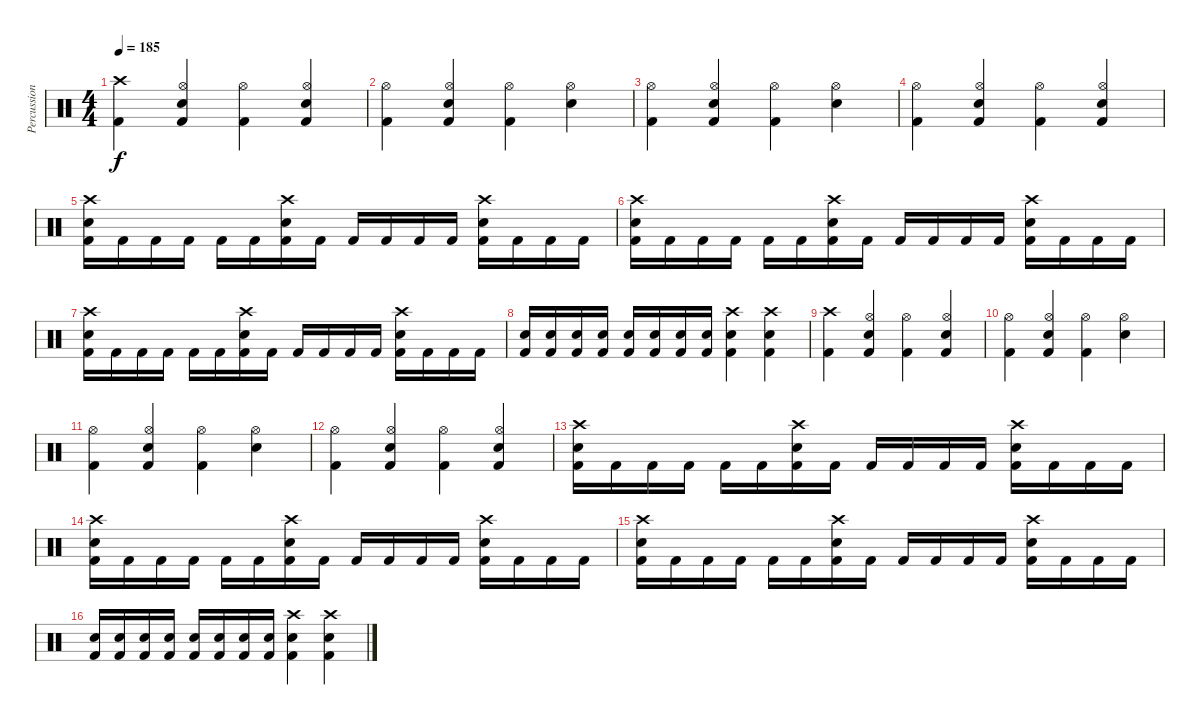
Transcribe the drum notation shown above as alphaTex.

\track ("Percussion" "Percussion") {instrument percussion}
\staff {score}
\articulation defaults
\ts (4 4)
\tempo 185
\clef neutral
\ks c
("Crash high (hit)" "Kick (hit) 2").4{dy f} ("Hi-Hat (open)" "Snare (hit) 2" "Kick (hit) 2").4 ("Hi-Hat (open)" "Kick (hit) 2").4 ("Hi-Hat (open)" "Snare (hit) 2" "Kick (hit) 2").4 |
("Hi-Hat (open)" "Kick (hit) 2").4 ("Hi-Hat (open)" "Snare (hit) 2" "Kick (hit) 2").4 ("Hi-Hat (open)" "Kick (hit) 2").4 ("Hi-Hat (open)" "Snare (hit) 2").4 |
("Hi-Hat (open)" "Kick (hit) 2").4 ("Hi-Hat (open)" "Snare (hit) 2" "Kick (hit) 2").4 ("Hi-Hat (open)" "Kick (hit) 2").4 ("Hi-Hat (open)" "Snare (hit) 2").4 |
("Hi-Hat (open)" "Kick (hit) 2").4 ("Hi-Hat (open)" "Snare (hit) 2" "Kick (hit) 2").4 ("Hi-Hat (open)" "Kick (hit) 2").4 ("Hi-Hat (open)" "Snare (hit) 2" "Kick (hit) 2").4 |
("Crash high (hit)" "Snare (hit) 2" "Kick (hit) 2").16 "Kick (hit) 2".16 "Kick (hit) 2".16 "Kick (hit) 2".16 "Kick (hit) 2".16 "Kick (hit) 2".16 ("Crash high (hit)" "Snare (hit) 2" "Kick (hit) 2").16 "Kick (hit) 2".16 "Kick (hit) 2".16 "Kick (hit) 2".16 "Kick (hit) 2".16 "Kick (hit) 2".16 ("Crash high (hit)" "Snare (hit) 2" "Kick (hit) 2").16 "Kick (hit) 2".16 "Kick (hit) 2".16 "Kick (hit) 2".16 |
("Crash high (hit)" "Snare (hit) 2" "Kick (hit) 2").16 "Kick (hit) 2".16 "Kick (hit) 2".16 "Kick (hit) 2".16 "Kick (hit) 2".16 "Kick (hit) 2".16 ("Crash high (hit)" "Snare (hit) 2" "Kick (hit) 2").16 "Kick (hit) 2".16 "Kick (hit) 2".16 "Kick (hit) 2".16 "Kick (hit) 2".16 "Kick (hit) 2".16 ("Crash high (hit)" "Snare (hit) 2" "Kick (hit) 2").16 "Kick (hit) 2".16 "Kick (hit) 2".16 "Kick (hit) 2".16 |
("Crash high (hit)" "Snare (hit) 2" "Kick (hit) 2").16 "Kick (hit) 2".16 "Kick (hit) 2".16 "Kick (hit) 2".16 "Kick (hit) 2".16 "Kick (hit) 2".16 ("Crash high (hit)" "Snare (hit) 2" "Kick (hit) 2").16 "Kick (hit) 2".16 "Kick (hit) 2".16 "Kick (hit) 2".16 "Kick (hit) 2".16 "Kick (hit) 2".16 ("Crash high (hit)" "Snare (hit) 2" "Kick (hit) 2").16 "Kick (hit) 2".16 "Kick (hit) 2".16 "Kick (hit) 2".16 |
("Snare (hit) 2" "Kick (hit) 2").16 ("Snare (hit) 2" "Kick (hit) 2").16 ("Snare (hit) 2" "Kick (hit) 2").16 ("Snare (hit) 2" "Kick (hit) 2").16 ("Snare (hit) 2" "Kick (hit) 2").16 ("Snare (hit) 2" "Kick (hit) 2").16 ("Snare (hit) 2" "Kick (hit) 2").16 ("Snare (hit) 2" "Kick (hit) 2").16 ("Crash high (hit)" "Snare (hit) 2" "Kick (hit) 2").4 ("Crash high (hit)" "Snare (hit) 2" "Kick (hit) 2").4 |
("Crash high (hit)" "Kick (hit) 2").4 ("Hi-Hat (open)" "Snare (hit) 2" "Kick (hit) 2").4 ("Hi-Hat (open)" "Kick (hit) 2").4 ("Hi-Hat (open)" "Snare (hit) 2" "Kick (hit) 2").4 |
("Hi-Hat (open)" "Kick (hit) 2").4 ("Hi-Hat (open)" "Snare (hit) 2" "Kick (hit) 2").4 ("Hi-Hat (open)" "Kick (hit) 2").4 ("Hi-Hat (open)" "Snare (hit) 2").4 |
("Hi-Hat (open)" "Kick (hit) 2").4 ("Hi-Hat (open)" "Snare (hit) 2" "Kick (hit) 2").4 ("Hi-Hat (open)" "Kick (hit) 2").4 ("Hi-Hat (open)" "Snare (hit) 2").4 |
("Hi-Hat (open)" "Kick (hit) 2").4 ("Hi-Hat (open)" "Snare (hit) 2" "Kick (hit) 2").4 ("Hi-Hat (open)" "Kick (hit) 2").4 ("Hi-Hat (open)" "Snare (hit) 2" "Kick (hit) 2").4 |
("Crash high (hit)" "Snare (hit) 2" "Kick (hit) 2").16 "Kick (hit) 2".16 "Kick (hit) 2".16 "Kick (hit) 2".16 "Kick (hit) 2".16 "Kick (hit) 2".16 ("Crash high (hit)" "Snare (hit) 2" "Kick (hit) 2").16 "Kick (hit) 2".16 "Kick (hit) 2".16 "Kick (hit) 2".16 "Kick (hit) 2".16 "Kick (hit) 2".16 ("Crash high (hit)" "Snare (hit) 2" "Kick (hit) 2").16 "Kick (hit) 2".16 "Kick (hit) 2".16 "Kick (hit) 2".16 |
("Crash high (hit)" "Snare (hit) 2" "Kick (hit) 2").16 "Kick (hit) 2".16 "Kick (hit) 2".16 "Kick (hit) 2".16 "Kick (hit) 2".16 "Kick (hit) 2".16 ("Crash high (hit)" "Snare (hit) 2" "Kick (hit) 2").16 "Kick (hit) 2".16 "Kick (hit) 2".16 "Kick (hit) 2".16 "Kick (hit) 2".16 "Kick (hit) 2".16 ("Crash high (hit)" "Snare (hit) 2" "Kick (hit) 2").16 "Kick (hit) 2".16 "Kick (hit) 2".16 "Kick (hit) 2".16 |
("Crash high (hit)" "Snare (hit) 2" "Kick (hit) 2").16 "Kick (hit) 2".16 "Kick (hit) 2".16 "Kick (hit) 2".16 "Kick (hit) 2".16 "Kick (hit) 2".16 ("Crash high (hit)" "Snare (hit) 2" "Kick (hit) 2").16 "Kick (hit) 2".16 "Kick (hit) 2".16 "Kick (hit) 2".16 "Kick (hit) 2".16 "Kick (hit) 2".16 ("Crash high (hit)" "Snare (hit) 2" "Kick (hit) 2").16 "Kick (hit) 2".16 "Kick (hit) 2".16 "Kick (hit) 2".16 |
("Snare (hit) 2" "Kick (hit) 2").16 ("Snare (hit) 2" "Kick (hit) 2").16 ("Snare (hit) 2" "Kick (hit) 2").16 ("Snare (hit) 2" "Kick (hit) 2").16 ("Snare (hit) 2" "Kick (hit) 2").16 ("Snare (hit) 2" "Kick (hit) 2").16 ("Snare (hit) 2" "Kick (hit) 2").16 ("Snare (hit) 2" "Kick (hit) 2").16 ("Crash high (hit)" "Snare (hit) 2" "Kick (hit) 2").4 ("Crash high (hit)" "Snare (hit) 2" "Kick (hit) 2").4
